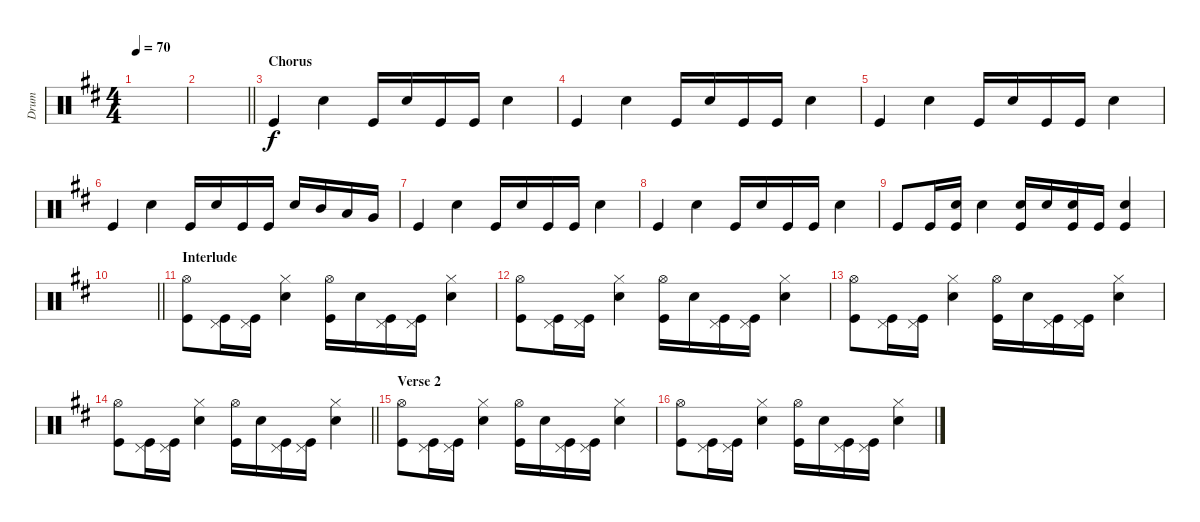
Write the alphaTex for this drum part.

\track ("Drum" "Drum") {instrument percussion}
\staff {score}
\articulation defaults
\ts (4 4)
\tempo 70
\clef neutral
\ks d
|
\barLineRight lightlight
|
\section ("" "Chorus")
"Kick (hit)".4 "Snare (hit) 2".4 "Kick (hit)".16 "Snare (hit) 2".16 "Kick (hit)".16 "Kick (hit)".16 "Snare (hit) 2".4 |
"Kick (hit)".4 "Snare (hit) 2".4 "Kick (hit)".16 "Snare (hit) 2".16 "Kick (hit)".16 "Kick (hit)".16 "Snare (hit) 2".4 |
"Kick (hit)".4 "Snare (hit) 2".4 "Kick (hit)".16 "Snare (hit) 2".16 "Kick (hit)".16 "Kick (hit)".16 "Snare (hit) 2".4 |
"Kick (hit)".4 "Snare (hit) 2".4 "Kick (hit)".16 "Snare (hit) 2".16 "Kick (hit)".16 "Kick (hit)".16 "Snare (hit) 2".16 "Mid Tom (hit)".16 "Low Tom (hit)".16 "Very Low Tom (hit)".16 |
"Kick (hit)".4 "Snare (hit) 2".4 "Kick (hit)".16 "Snare (hit) 2".16 "Kick (hit)".16 "Kick (hit)".16 "Snare (hit) 2".4 |
"Kick (hit)".4 "Snare (hit) 2".4 "Kick (hit)".16 "Snare (hit) 2".16 "Kick (hit)".16 "Kick (hit)".16 "Snare (hit) 2".4 |
"Kick (hit)".8 "Kick (hit)".16 ("Kick (hit)" "Snare (hit) 2").16 "Snare (hit) 2".4 ("Kick (hit)" "Snare (hit) 2").16 "Snare (hit) 2".16 ("Kick (hit)" "Snare (hit) 2").16 "Kick (hit)".16 ("Snare (hit) 2" "Kick (hit)").4 |
\barLineRight lightlight
|
\section ("" "Interlude")
("Kick (hit)" "Hi-Hat (open)").8 ("Kick (hit)" "Pedal Hi-Hat (hit)").16 ("Kick (hit)" "Pedal Hi-Hat (hit)").16 ("Snare (hit) 2" "Hi-Hat (closed)").4 ("Kick (hit)" "Hi-Hat (open)").16 "Snare (hit) 2".16 ("Kick (hit)" "Pedal Hi-Hat (hit)").16 ("Kick (hit)" "Pedal Hi-Hat (hit)").16 ("Snare (hit) 2" "Hi-Hat (closed)").4 |
("Kick (hit)" "Hi-Hat (open)").8 ("Kick (hit)" "Pedal Hi-Hat (hit)").16 ("Kick (hit)" "Pedal Hi-Hat (hit)").16 ("Snare (hit) 2" "Hi-Hat (closed)").4 ("Kick (hit)" "Hi-Hat (open)").16 "Snare (hit) 2".16 ("Kick (hit)" "Pedal Hi-Hat (hit)").16 ("Kick (hit)" "Pedal Hi-Hat (hit)").16 ("Snare (hit) 2" "Hi-Hat (closed)").4 |
("Kick (hit)" "Hi-Hat (open)").8 ("Kick (hit)" "Pedal Hi-Hat (hit)").16 ("Kick (hit)" "Pedal Hi-Hat (hit)").16 ("Snare (hit) 2" "Hi-Hat (closed)").4 ("Kick (hit)" "Hi-Hat (open)").16 "Snare (hit) 2".16 ("Kick (hit)" "Pedal Hi-Hat (hit)").16 ("Kick (hit)" "Pedal Hi-Hat (hit)").16 ("Snare (hit) 2" "Hi-Hat (closed)").4 |
\barLineRight lightlight
("Kick (hit)" "Hi-Hat (open)").8 ("Kick (hit)" "Pedal Hi-Hat (hit)").16 ("Kick (hit)" "Pedal Hi-Hat (hit)").16 ("Snare (hit) 2" "Hi-Hat (closed)").4 ("Kick (hit)" "Hi-Hat (open)").16 "Snare (hit) 2".16 ("Kick (hit)" "Pedal Hi-Hat (hit)").16 ("Kick (hit)" "Pedal Hi-Hat (hit)").16 ("Snare (hit) 2" "Hi-Hat (closed)").4 |
\section ("" "Verse 2")
("Kick (hit)" "Hi-Hat (open)").8 ("Kick (hit)" "Pedal Hi-Hat (hit)").16 ("Kick (hit)" "Pedal Hi-Hat (hit)").16 ("Snare (hit) 2" "Hi-Hat (closed)").4 ("Kick (hit)" "Hi-Hat (open)").16 "Snare (hit) 2".16 ("Kick (hit)" "Pedal Hi-Hat (hit)").16 ("Kick (hit)" "Pedal Hi-Hat (hit)").16 ("Snare (hit) 2" "Hi-Hat (closed)").4 |
("Kick (hit)" "Hi-Hat (open)").8 ("Kick (hit)" "Pedal Hi-Hat (hit)").16 ("Kick (hit)" "Pedal Hi-Hat (hit)").16 ("Snare (hit) 2" "Hi-Hat (closed)").4 ("Kick (hit)" "Hi-Hat (open)").16 "Snare (hit) 2".16 ("Kick (hit)" "Pedal Hi-Hat (hit)").16 ("Kick (hit)" "Pedal Hi-Hat (hit)").16 ("Snare (hit) 2" "Hi-Hat (closed)").4
